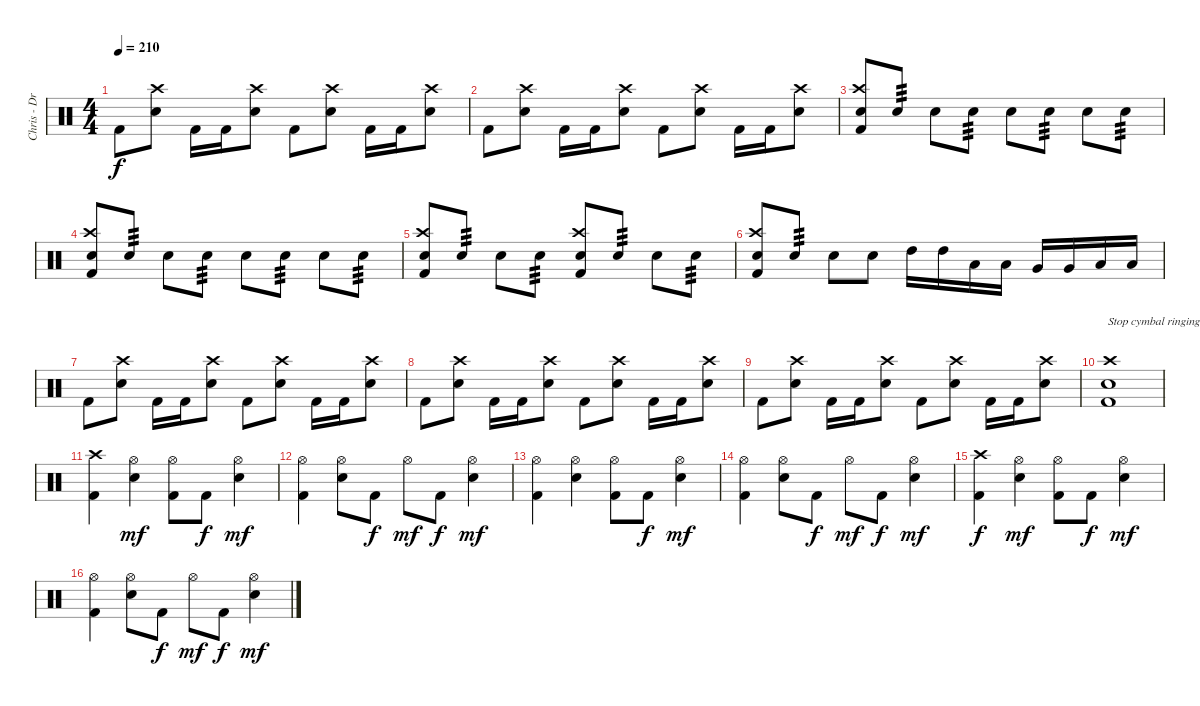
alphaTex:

\track ("Chris - Drums" "Chris - Dr") {instrument percussion}
\staff {score}
\articulation defaults
\ts (4 4)
\tempo 210
\clef neutral
\ks c "Kick (hit) 2".8{dy f}
("Crash high (hit)" "Electric Snare (hit)").8 "Kick (hit) 2".16 "Kick (hit) 2".16 ("Crash high (hit)" "Electric Snare (hit)").8 "Kick (hit) 2".8 ("Crash high (hit)" "Electric Snare (hit)").8 "Kick (hit) 2".16 "Kick (hit) 2".16 ("Crash high (hit)" "Electric Snare (hit)").8 |
"Kick (hit) 2".8 ("Crash high (hit)" "Electric Snare (hit)").8 "Kick (hit) 2".16 "Kick (hit) 2".16 ("Crash high (hit)" "Electric Snare (hit)").8 "Kick (hit) 2".8 ("Crash high (hit)" "Electric Snare (hit)").8 "Kick (hit) 2".16 "Kick (hit) 2".16 ("Crash high (hit)" "Electric Snare (hit)").8 |
("Crash high (hit)" "Electric Snare (hit)" "Kick (hit) 2").8 "Electric Snare (hit)".8{tp 3} "Electric Snare (hit)".8 "Electric Snare (hit)".8{tp 3} "Electric Snare (hit)".8 "Electric Snare (hit)".8{tp 3} "Electric Snare (hit)".8 "Electric Snare (hit)".8{tp 3} |
("Crash high (hit)" "Electric Snare (hit)" "Kick (hit) 2").8 "Electric Snare (hit)".8{tp 3} "Electric Snare (hit)".8 "Electric Snare (hit)".8{tp 3} "Electric Snare (hit)".8 "Electric Snare (hit)".8{tp 3} "Electric Snare (hit)".8 "Electric Snare (hit)".8{tp 3} |
("Crash high (hit)" "Electric Snare (hit)" "Kick (hit) 2").8 "Electric Snare (hit)".8{tp 3} "Electric Snare (hit)".8 "Electric Snare (hit)".8{tp 3} ("Crash high (hit)" "Electric Snare (hit)" "Kick (hit) 2").8 "Electric Snare (hit)".8{tp 3} "Electric Snare (hit)".8 "Electric Snare (hit)".8{tp 3} |
("Crash high (hit)" "Electric Snare (hit)" "Kick (hit) 2").8 "Electric Snare (hit)".8{tp 3} "Electric Snare (hit)".8 "Electric Snare (hit)".8 "High Tom (hit)".16 "High Tom (hit)".16 "Low Tom (hit)".16 "Low Tom (hit)".16 "Very Low Tom (hit)".16 "Very Low Tom (hit)".16 "Low Floor Tom (hit)".16 "Low Floor Tom (hit)".16 |
"Kick (hit) 2".8 ("Crash high (hit)" "Electric Snare (hit)").8 "Kick (hit) 2".16 "Kick (hit) 2".16 ("Crash high (hit)" "Electric Snare (hit)").8 "Kick (hit) 2".8 ("Crash high (hit)" "Electric Snare (hit)").8 "Kick (hit) 2".16 "Kick (hit) 2".16 ("Crash high (hit)" "Electric Snare (hit)").8 |
"Kick (hit) 2".8 ("Crash high (hit)" "Electric Snare (hit)").8 "Kick (hit) 2".16 "Kick (hit) 2".16 ("Crash high (hit)" "Electric Snare (hit)").8 "Kick (hit) 2".8 ("Crash high (hit)" "Electric Snare (hit)").8 "Kick (hit) 2".16 "Kick (hit) 2".16 ("Crash high (hit)" "Electric Snare (hit)").8 |
"Kick (hit) 2".8 ("Crash high (hit)" "Electric Snare (hit)").8 "Kick (hit) 2".16 "Kick (hit) 2".16 ("Crash high (hit)" "Electric Snare (hit)").8 "Kick (hit) 2".8 ("Crash high (hit)" "Electric Snare (hit)").8 "Kick (hit) 2".16 "Kick (hit) 2".16 ("Crash high (hit)" "Electric Snare (hit)").8 |
("Crash high (hit)" "Electric Snare (hit)" "Kick (hit) 2").1{txt "Stop cymbal ringing."} |
("Crash high (hit)" "Kick (hit) 2").4 ("Hi-Hat (open)" "Electric Snare (hit)").4{dy mf} ("Hi-Hat (open)" "Kick (hit) 2").8 "Kick (hit) 2".8{dy f} ("Hi-Hat (open)" "Electric Snare (hit)").4{dy mf} |
("Hi-Hat (open)" "Kick (hit) 2").4 ("Hi-Hat (open)" "Electric Snare (hit)").8 "Kick (hit) 2".8{dy f} "Hi-Hat (open)".8{dy mf} "Kick (hit) 2".8{dy f} ("Hi-Hat (open)" "Electric Snare (hit)").4{dy mf} |
("Hi-Hat (open)" "Kick (hit) 2").4 ("Hi-Hat (open)" "Electric Snare (hit)").4 ("Hi-Hat (open)" "Kick (hit) 2").8 "Kick (hit) 2".8{dy f} ("Hi-Hat (open)" "Electric Snare (hit)").4{dy mf} |
("Hi-Hat (open)" "Kick (hit) 2").4 ("Hi-Hat (open)" "Electric Snare (hit)").8 "Kick (hit) 2".8{dy f} "Hi-Hat (open)".8{dy mf} "Kick (hit) 2".8{dy f} ("Hi-Hat (open)" "Electric Snare (hit)").4{dy mf} |
("Crash high (hit)" "Kick (hit) 2").4{dy f} ("Hi-Hat (open)" "Electric Snare (hit)").4{dy mf} ("Hi-Hat (open)" "Kick (hit) 2").8 "Kick (hit) 2".8{dy f} ("Hi-Hat (open)" "Electric Snare (hit)").4{dy mf} |
("Hi-Hat (open)" "Kick (hit) 2").4 ("Hi-Hat (open)" "Electric Snare (hit)").8 "Kick (hit) 2".8{dy f} "Hi-Hat (open)".8{dy mf} "Kick (hit) 2".8{dy f} ("Hi-Hat (open)" "Electric Snare (hit)").4{dy mf}
